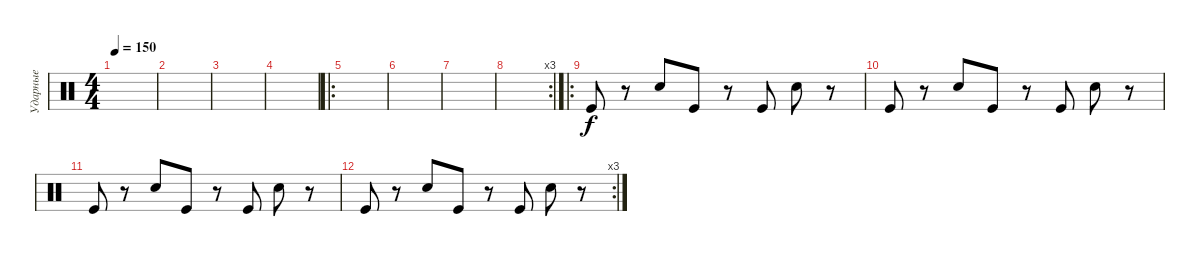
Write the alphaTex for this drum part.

\track ("Ударные" "Ударные") {instrument percussion}
\staff {score}
\articulation defaults
\ts (4 4)
\tempo 150
\clef neutral
\ks c
|
|
|
|
\ro
|
|
|
\rc 3
|
\ro "Kick (hit)".8
r.8 "Hand Clap (hit)".8 "Kick (hit)".8 r.8 "Kick (hit)".8 "Hand Clap (hit)".8 r.8 |
"Kick (hit)".8 r.8 "Hand Clap (hit)".8 "Kick (hit)".8 r.8 "Kick (hit)".8 "Hand Clap (hit)".8 r.8 |
"Kick (hit)".8 r.8 "Hand Clap (hit)".8 "Kick (hit)".8 r.8 "Kick (hit)".8 "Hand Clap (hit)".8 r.8 |
\rc 3 "Kick (hit)".8
r.8 "Hand Clap (hit)".8 "Kick (hit)".8 r.8 "Kick (hit)".8 "Hand Clap (hit)".8 r.8
